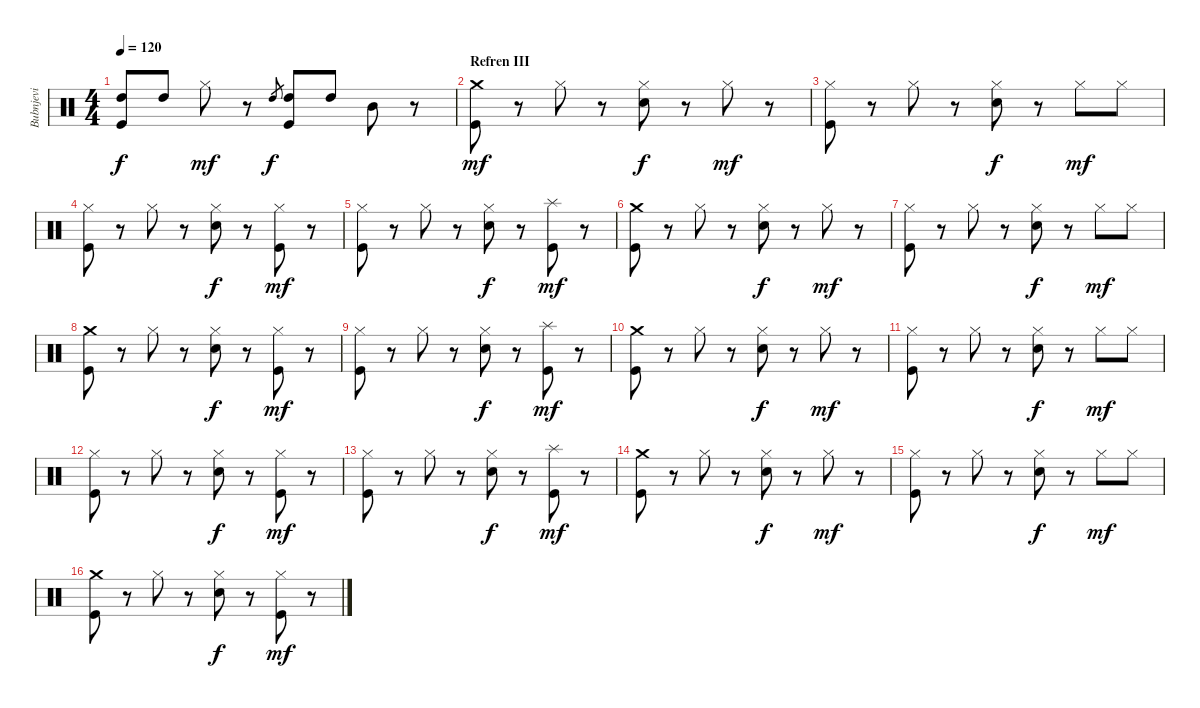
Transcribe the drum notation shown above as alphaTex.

\track ("Bubnjevi" "Bubnjevi") {instrument percussion}
\staff {score}
\articulation defaults
\ts (4 4)
\tempo 120
\clef neutral
\ks c
("High Tom (hit)" "Kick (hit)").8{dy f} "High Tom (hit)".8 "Hi-Hat (closed)".8{dy mf} r.8 "High Tom (hit)".8{gr dy f} ("High Tom (hit)" "Kick (hit)").8 "High Tom (hit)".8 "Mid Tom (hit)".8 r.8 |
\section ("" "Refren III")
("Crash medium (hit)" "Kick (hit)").8{dy mf} r.8 "Hi-Hat (closed)".8 r.8 ("Hi-Hat (closed)" "Snare (hit) 2").8{dy f} r.8 "Hi-Hat (closed)".8{dy mf} r.8 |
("Hi-Hat (closed)" "Kick (hit)").8 r.8 "Hi-Hat (closed)".8 r.8 ("Hi-Hat (closed)" "Snare (hit) 2").8{dy f} r.8 "Hi-Hat (closed)".8{dy mf} "Hi-Hat (closed)".8 |
("Hi-Hat (closed)" "Kick (hit)").8 r.8 "Hi-Hat (closed)".8 r.8 ("Hi-Hat (closed)" "Snare (hit) 2").8{dy f} r.8 ("Hi-Hat (closed)" "Kick (hit)").8{dy mf} r.8 |
("Hi-Hat (closed)" "Kick (hit)").8 r.8 "Hi-Hat (closed)".8 r.8 ("Hi-Hat (closed)" "Snare (hit) 2").8{dy f} r.8 ("Splash (hit)" "Kick (hit)").8{dy mf} r.8 |
("Crash medium (hit)" "Kick (hit)").8 r.8 "Hi-Hat (closed)".8 r.8 ("Hi-Hat (closed)" "Snare (hit) 2").8{dy f} r.8 "Hi-Hat (closed)".8{dy mf} r.8 |
("Hi-Hat (closed)" "Kick (hit)").8 r.8 "Hi-Hat (closed)".8 r.8 ("Hi-Hat (closed)" "Snare (hit) 2").8{dy f} r.8 "Hi-Hat (closed)".8{dy mf} "Hi-Hat (closed)".8 |
("Crash medium (hit)" "Kick (hit)").8 r.8 "Hi-Hat (closed)".8 r.8 ("Hi-Hat (closed)" "Snare (hit) 2").8{dy f} r.8 ("Hi-Hat (closed)" "Kick (hit)").8{dy mf} r.8 |
("Hi-Hat (closed)" "Kick (hit)").8 r.8 "Hi-Hat (closed)".8 r.8 ("Hi-Hat (closed)" "Snare (hit) 2").8{dy f} r.8 ("Splash (hit)" "Kick (hit)").8{dy mf} r.8 |
("Crash medium (hit)" "Kick (hit)").8 r.8 "Hi-Hat (closed)".8 r.8 ("Hi-Hat (closed)" "Snare (hit) 2").8{dy f} r.8 "Hi-Hat (closed)".8{dy mf} r.8 |
("Hi-Hat (closed)" "Kick (hit)").8 r.8 "Hi-Hat (closed)".8 r.8 ("Hi-Hat (closed)" "Snare (hit) 2").8{dy f} r.8 "Hi-Hat (closed)".8{dy mf} "Hi-Hat (closed)".8 |
("Hi-Hat (closed)" "Kick (hit)").8 r.8 "Hi-Hat (closed)".8 r.8 ("Hi-Hat (closed)" "Snare (hit) 2").8{dy f} r.8 ("Hi-Hat (closed)" "Kick (hit)").8{dy mf} r.8 |
("Hi-Hat (closed)" "Kick (hit)").8 r.8 "Hi-Hat (closed)".8 r.8 ("Hi-Hat (closed)" "Snare (hit) 2").8{dy f} r.8 ("Splash (hit)" "Kick (hit)").8{dy mf} r.8 |
("Crash medium (hit)" "Kick (hit)").8 r.8 "Hi-Hat (closed)".8 r.8 ("Hi-Hat (closed)" "Snare (hit) 2").8{dy f} r.8 "Hi-Hat (closed)".8{dy mf} r.8 |
("Hi-Hat (closed)" "Kick (hit)").8 r.8 "Hi-Hat (closed)".8 r.8 ("Hi-Hat (closed)" "Snare (hit) 2").8{dy f} r.8 "Hi-Hat (closed)".8{dy mf} "Hi-Hat (closed)".8 |
("Crash medium (hit)" "Kick (hit)").8 r.8 "Hi-Hat (closed)".8 r.8 ("Hi-Hat (closed)" "Snare (hit) 2").8{dy f} r.8 ("Hi-Hat (closed)" "Kick (hit)").8{dy mf} r.8
